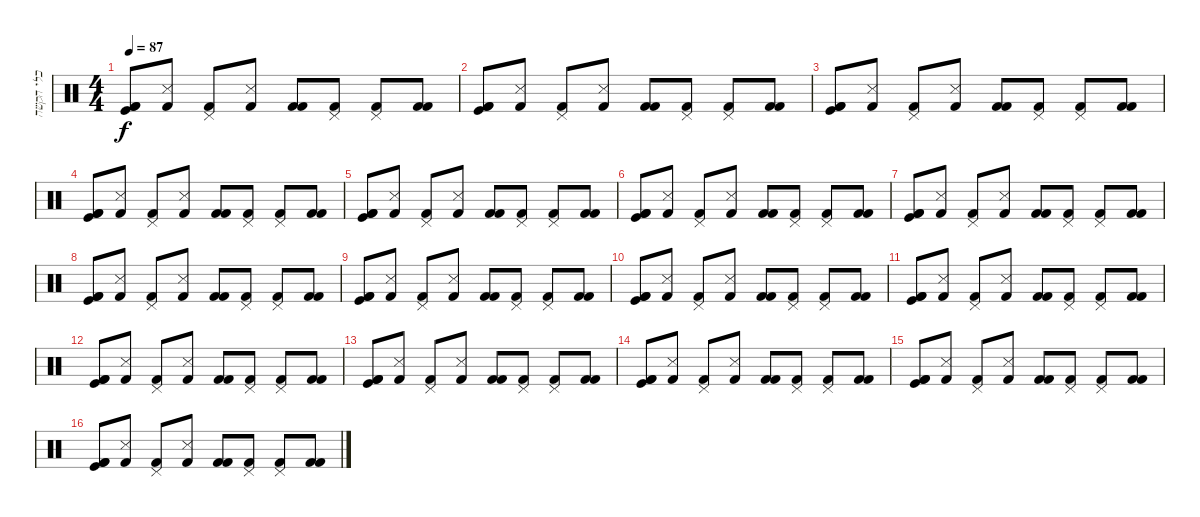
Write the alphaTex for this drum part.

\track ("כלי הקשה" "כלי הקשה") {instrument percussion}
\staff {score}
\articulation defaults
\ts (4 4)
\tempo 87
\clef neutral
\ks c
("Kick (hit) 2" "Kick (hit)" "Kick (hit) 2").8{dy f} ("Snare (side stick) 3" "Kick (hit) 2").8 ("Pedal Hi-Hat (hit)" "Kick (hit) 2").8 ("Snare (side stick) 3" "Kick (hit) 2").8 ("Kick (hit) 2" "Kick (hit) 2").8 ("Pedal Hi-Hat (hit)" "Kick (hit) 2").8 ("Pedal Hi-Hat (hit)" "Kick (hit) 2").8 ("Kick (hit) 2" "Kick (hit) 2").8 |
("Kick (hit) 2" "Kick (hit)" "Kick (hit) 2").8 ("Snare (side stick) 3" "Kick (hit) 2").8 ("Pedal Hi-Hat (hit)" "Kick (hit) 2").8 ("Snare (side stick) 3" "Kick (hit) 2").8 ("Kick (hit) 2" "Kick (hit) 2").8 ("Pedal Hi-Hat (hit)" "Kick (hit) 2").8 ("Pedal Hi-Hat (hit)" "Kick (hit) 2").8 ("Kick (hit) 2" "Kick (hit) 2").8 |
("Kick (hit) 2" "Kick (hit)" "Kick (hit) 2").8 ("Snare (side stick) 3" "Kick (hit) 2").8 ("Pedal Hi-Hat (hit)" "Kick (hit) 2").8 ("Snare (side stick) 3" "Kick (hit) 2").8 ("Kick (hit) 2" "Kick (hit) 2").8 ("Pedal Hi-Hat (hit)" "Kick (hit) 2").8 ("Pedal Hi-Hat (hit)" "Kick (hit) 2").8 ("Kick (hit) 2" "Kick (hit) 2").8 |
("Kick (hit) 2" "Kick (hit)" "Kick (hit) 2").8 ("Snare (side stick) 3" "Kick (hit) 2").8 ("Pedal Hi-Hat (hit)" "Kick (hit) 2").8 ("Snare (side stick) 3" "Kick (hit) 2").8 ("Kick (hit) 2" "Kick (hit) 2").8 ("Pedal Hi-Hat (hit)" "Kick (hit) 2").8 ("Pedal Hi-Hat (hit)" "Kick (hit) 2").8 ("Kick (hit) 2" "Kick (hit) 2").8 |
("Kick (hit) 2" "Kick (hit)" "Kick (hit) 2").8 ("Snare (side stick) 3" "Kick (hit) 2").8 ("Pedal Hi-Hat (hit)" "Kick (hit) 2").8 ("Snare (side stick) 3" "Kick (hit) 2").8 ("Kick (hit) 2" "Kick (hit) 2").8 ("Pedal Hi-Hat (hit)" "Kick (hit) 2").8 ("Pedal Hi-Hat (hit)" "Kick (hit) 2").8 ("Kick (hit) 2" "Kick (hit) 2").8 |
("Kick (hit) 2" "Kick (hit)" "Kick (hit) 2").8 ("Snare (side stick) 3" "Kick (hit) 2").8 ("Pedal Hi-Hat (hit)" "Kick (hit) 2").8 ("Snare (side stick) 3" "Kick (hit) 2").8 ("Kick (hit) 2" "Kick (hit) 2").8 ("Pedal Hi-Hat (hit)" "Kick (hit) 2").8 ("Pedal Hi-Hat (hit)" "Kick (hit) 2").8 ("Kick (hit) 2" "Kick (hit) 2").8 |
("Kick (hit) 2" "Kick (hit)" "Kick (hit) 2").8 ("Snare (side stick) 3" "Kick (hit) 2").8 ("Pedal Hi-Hat (hit)" "Kick (hit) 2").8 ("Snare (side stick) 3" "Kick (hit) 2").8 ("Kick (hit) 2" "Kick (hit) 2").8 ("Pedal Hi-Hat (hit)" "Kick (hit) 2").8 ("Pedal Hi-Hat (hit)" "Kick (hit) 2").8 ("Kick (hit) 2" "Kick (hit) 2").8 |
("Kick (hit) 2" "Kick (hit)" "Kick (hit) 2").8 ("Snare (side stick) 3" "Kick (hit) 2").8 ("Pedal Hi-Hat (hit)" "Kick (hit) 2").8 ("Snare (side stick) 3" "Kick (hit) 2").8 ("Kick (hit) 2" "Kick (hit) 2").8 ("Pedal Hi-Hat (hit)" "Kick (hit) 2").8 ("Pedal Hi-Hat (hit)" "Kick (hit) 2").8 ("Kick (hit) 2" "Kick (hit) 2").8 |
("Kick (hit) 2" "Kick (hit)" "Kick (hit) 2").8 ("Snare (side stick) 3" "Kick (hit) 2").8 ("Pedal Hi-Hat (hit)" "Kick (hit) 2").8 ("Snare (side stick) 3" "Kick (hit) 2").8 ("Kick (hit) 2" "Kick (hit) 2").8 ("Pedal Hi-Hat (hit)" "Kick (hit) 2").8 ("Pedal Hi-Hat (hit)" "Kick (hit) 2").8 ("Kick (hit) 2" "Kick (hit) 2").8 |
("Kick (hit) 2" "Kick (hit)" "Kick (hit) 2").8 ("Snare (side stick) 3" "Kick (hit) 2").8 ("Pedal Hi-Hat (hit)" "Kick (hit) 2").8 ("Snare (side stick) 3" "Kick (hit) 2").8 ("Kick (hit) 2" "Kick (hit) 2").8 ("Pedal Hi-Hat (hit)" "Kick (hit) 2").8 ("Pedal Hi-Hat (hit)" "Kick (hit) 2").8 ("Kick (hit) 2" "Kick (hit) 2").8 |
("Kick (hit) 2" "Kick (hit)" "Kick (hit) 2").8 ("Snare (side stick) 3" "Kick (hit) 2").8 ("Pedal Hi-Hat (hit)" "Kick (hit) 2").8 ("Snare (side stick) 3" "Kick (hit) 2").8 ("Kick (hit) 2" "Kick (hit) 2").8 ("Pedal Hi-Hat (hit)" "Kick (hit) 2").8 ("Pedal Hi-Hat (hit)" "Kick (hit) 2").8 ("Kick (hit) 2" "Kick (hit) 2").8 |
("Kick (hit) 2" "Kick (hit)" "Kick (hit) 2").8 ("Snare (side stick) 3" "Kick (hit) 2").8 ("Pedal Hi-Hat (hit)" "Kick (hit) 2").8 ("Snare (side stick) 3" "Kick (hit) 2").8 ("Kick (hit) 2" "Kick (hit) 2").8 ("Pedal Hi-Hat (hit)" "Kick (hit) 2").8 ("Pedal Hi-Hat (hit)" "Kick (hit) 2").8 ("Kick (hit) 2" "Kick (hit) 2").8 |
("Kick (hit) 2" "Kick (hit)" "Kick (hit) 2").8 ("Snare (side stick) 3" "Kick (hit) 2").8 ("Pedal Hi-Hat (hit)" "Kick (hit) 2").8 ("Snare (side stick) 3" "Kick (hit) 2").8 ("Kick (hit) 2" "Kick (hit) 2").8 ("Pedal Hi-Hat (hit)" "Kick (hit) 2").8 ("Pedal Hi-Hat (hit)" "Kick (hit) 2").8 ("Kick (hit) 2" "Kick (hit) 2").8 |
("Kick (hit) 2" "Kick (hit)" "Kick (hit) 2").8 ("Snare (side stick) 3" "Kick (hit) 2").8 ("Pedal Hi-Hat (hit)" "Kick (hit) 2").8 ("Snare (side stick) 3" "Kick (hit) 2").8 ("Kick (hit) 2" "Kick (hit) 2").8 ("Pedal Hi-Hat (hit)" "Kick (hit) 2").8 ("Pedal Hi-Hat (hit)" "Kick (hit) 2").8 ("Kick (hit) 2" "Kick (hit) 2").8 |
("Kick (hit) 2" "Kick (hit)" "Kick (hit) 2").8 ("Snare (side stick) 3" "Kick (hit) 2").8 ("Pedal Hi-Hat (hit)" "Kick (hit) 2").8 ("Snare (side stick) 3" "Kick (hit) 2").8 ("Kick (hit) 2" "Kick (hit) 2").8 ("Pedal Hi-Hat (hit)" "Kick (hit) 2").8 ("Pedal Hi-Hat (hit)" "Kick (hit) 2").8 ("Kick (hit) 2" "Kick (hit) 2").8 |
("Kick (hit) 2" "Kick (hit)" "Kick (hit) 2").8 ("Snare (side stick) 3" "Kick (hit) 2").8 ("Pedal Hi-Hat (hit)" "Kick (hit) 2").8 ("Snare (side stick) 3" "Kick (hit) 2").8 ("Kick (hit) 2" "Kick (hit) 2").8 ("Pedal Hi-Hat (hit)" "Kick (hit) 2").8 ("Pedal Hi-Hat (hit)" "Kick (hit) 2").8 ("Kick (hit) 2" "Kick (hit) 2").8
